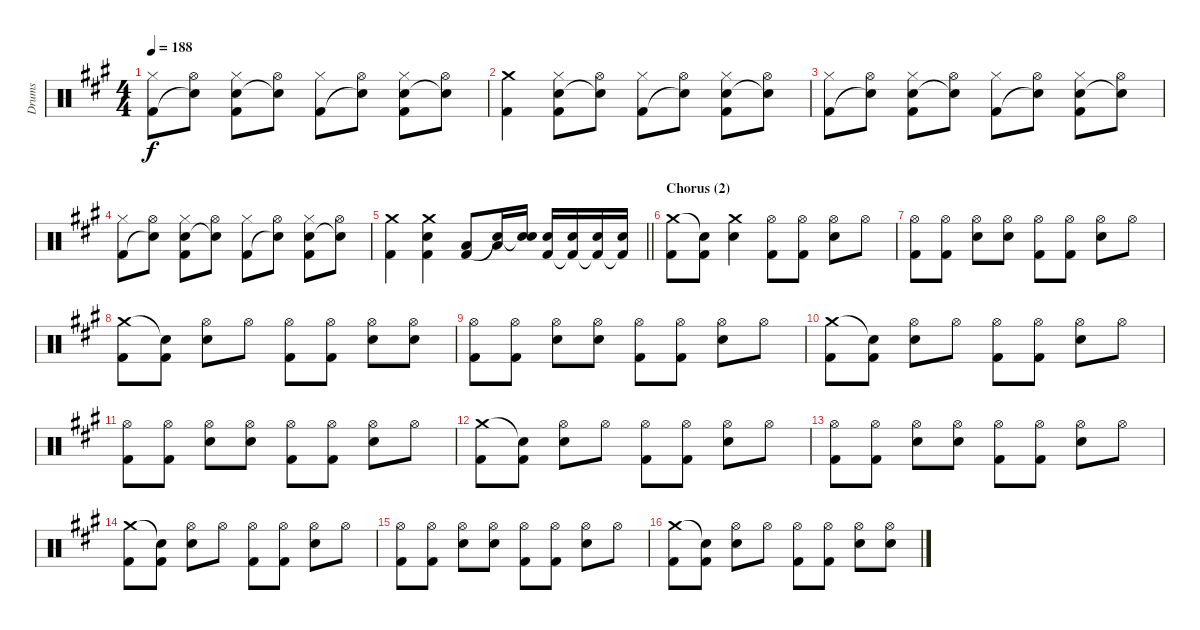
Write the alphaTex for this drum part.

\track ("Drums" "Drums") {instrument percussion}
\staff {score}
\articulation defaults
\ts (4 4)
\tempo 188
\clef neutral
\ks a
("Hi-Hat (closed)" "Kick (hit) 2").8{dy f} ("Hi-Hat (open)" "Snare (hit)"{t}).8 ("Hi-Hat (closed)" "Electric Snare (hit)" "Kick (hit) 2").8 ("Hi-Hat (open)" "Snare (hit)"{t}).8 ("Hi-Hat (closed)" "Kick (hit) 2").8 ("Hi-Hat (open)" "Snare (hit)"{t}).8 ("Hi-Hat (closed)" "Electric Snare (hit)" "Kick (hit) 2").8 ("Hi-Hat (open)" "Snare (hit)"{t}).8 |
("Crash medium (hit)" "Kick (hit) 2").4 ("Hi-Hat (closed)" "Electric Snare (hit)" "Kick (hit) 2").8 ("Hi-Hat (open)" "Snare (hit)"{t}).8 ("Hi-Hat (closed)" "Kick (hit) 2").8 ("Hi-Hat (open)" "Snare (hit)"{t}).8 ("Hi-Hat (closed)" "Electric Snare (hit)" "Kick (hit) 2").8 ("Hi-Hat (open)" "Snare (hit)"{t}).8 |
("Hi-Hat (closed)" "Kick (hit) 2").8 ("Hi-Hat (open)" "Snare (hit)"{t}).8 ("Hi-Hat (closed)" "Electric Snare (hit)" "Kick (hit) 2").8 ("Hi-Hat (open)" "Snare (hit)"{t}).8 ("Hi-Hat (closed)" "Kick (hit) 2").8 ("Hi-Hat (open)" "Snare (hit)"{t}).8 ("Hi-Hat (closed)" "Electric Snare (hit)" "Kick (hit) 2").8 ("Hi-Hat (open)" "Snare (hit)"{t}).8 |
("Hi-Hat (closed)" "Kick (hit) 2").8 ("Hi-Hat (open)" "Snare (hit)"{t}).8 ("Hi-Hat (closed)" "Electric Snare (hit)" "Kick (hit) 2").8 ("Hi-Hat (open)" "Snare (hit)"{t}).8 ("Hi-Hat (closed)" "Kick (hit) 2").8 ("Hi-Hat (open)" "Snare (hit)"{t}).8 ("Hi-Hat (closed)" "Electric Snare (hit)" "Kick (hit) 2").8 ("Hi-Hat (open)" "Snare (hit)"{t}).8 |
\barLineRight lightlight
("Crash medium (hit)" "Kick (hit) 2").4 ("Crash medium (hit)" "Electric Snare (hit)" "Kick (hit) 2").4 ("Low Tom (hit)" "Kick (hit) 2").8 ("Low Tom (hit)" "Snare (hit)"{t}).16 ("Electric Snare (hit)" "Snare (hit)"{t}).16 ("Electric Snare (hit)" "Kick (hit) 2").16 ("Electric Snare (hit)" "Kick (hit) 2"{t}).16 ("Electric Snare (hit)" "Kick (hit) 2"{t}).16 ("Electric Snare (hit)" "Kick (hit) 2"{t}).16 |
\section ("" "Chorus (2)")
("Crash medium (hit)" "Kick (hit) 2").8 ("Snare (hit)"{t} "Kick (hit) 2").8 ("Crash medium (hit)" "Electric Snare (hit)").4 ("Hi-Hat (open)" "Kick (hit) 2").8 ("Hi-Hat (open)" "Kick (hit) 2").8 ("Hi-Hat (open)" "Electric Snare (hit)").8 "Hi-Hat (open)".8 |
("Hi-Hat (open)" "Kick (hit) 2").8 ("Hi-Hat (open)" "Kick (hit) 2").8 ("Hi-Hat (open)" "Electric Snare (hit)").8 ("Hi-Hat (open)" "Electric Snare (hit)").8 ("Hi-Hat (open)" "Kick (hit) 2").8 ("Hi-Hat (open)" "Kick (hit) 2").8 ("Hi-Hat (open)" "Electric Snare (hit)").8 "Hi-Hat (open)".8 |
("Crash medium (hit)" "Kick (hit) 2").8 ("Snare (hit)"{t} "Kick (hit) 2").8 ("Hi-Hat (open)" "Electric Snare (hit)").8 "Hi-Hat (open)".8 ("Hi-Hat (open)" "Kick (hit) 2").8 ("Hi-Hat (open)" "Kick (hit) 2").8 ("Hi-Hat (open)" "Electric Snare (hit)").8 ("Hi-Hat (open)" "Electric Snare (hit)").8 |
("Hi-Hat (open)" "Kick (hit) 2").8 ("Hi-Hat (open)" "Kick (hit) 2").8 ("Hi-Hat (open)" "Electric Snare (hit)").8 ("Hi-Hat (open)" "Electric Snare (hit)").8 ("Hi-Hat (open)" "Kick (hit) 2").8 ("Hi-Hat (open)" "Kick (hit) 2").8 ("Hi-Hat (open)" "Electric Snare (hit)").8 "Hi-Hat (open)".8 |
("Crash medium (hit)" "Kick (hit) 2").8 ("Snare (hit)"{t} "Kick (hit) 2").8 ("Hi-Hat (open)" "Electric Snare (hit)").8 "Hi-Hat (open)".8 ("Hi-Hat (open)" "Kick (hit) 2").8 ("Hi-Hat (open)" "Kick (hit) 2").8 ("Hi-Hat (open)" "Electric Snare (hit)").8 "Hi-Hat (open)".8 |
("Hi-Hat (open)" "Kick (hit) 2").8 ("Hi-Hat (open)" "Kick (hit) 2").8 ("Hi-Hat (open)" "Electric Snare (hit)").8 ("Hi-Hat (open)" "Electric Snare (hit)").8 ("Hi-Hat (open)" "Kick (hit) 2").8 ("Hi-Hat (open)" "Kick (hit) 2").8 ("Hi-Hat (open)" "Electric Snare (hit)").8 "Hi-Hat (open)".8 |
("Crash medium (hit)" "Kick (hit) 2").8 ("Snare (hit)"{t} "Kick (hit) 2").8 ("Hi-Hat (open)" "Electric Snare (hit)").8 "Hi-Hat (open)".8 ("Hi-Hat (open)" "Kick (hit) 2").8 ("Hi-Hat (open)" "Kick (hit) 2").8 ("Hi-Hat (open)" "Electric Snare (hit)").8 "Hi-Hat (open)".8 |
("Hi-Hat (open)" "Kick (hit) 2").8 ("Hi-Hat (open)" "Kick (hit) 2").8 ("Hi-Hat (open)" "Electric Snare (hit)").8 ("Hi-Hat (open)" "Electric Snare (hit)").8 ("Hi-Hat (open)" "Kick (hit) 2").8 ("Hi-Hat (open)" "Kick (hit) 2").8 ("Hi-Hat (open)" "Electric Snare (hit)").8 "Hi-Hat (open)".8 |
("Crash medium (hit)" "Kick (hit) 2").8 ("Snare (hit)"{t} "Kick (hit) 2").8 ("Hi-Hat (open)" "Electric Snare (hit)").8 "Hi-Hat (open)".8 ("Hi-Hat (open)" "Kick (hit) 2").8 ("Hi-Hat (open)" "Kick (hit) 2").8 ("Hi-Hat (open)" "Electric Snare (hit)").8 "Hi-Hat (open)".8 |
("Hi-Hat (open)" "Kick (hit) 2").8 ("Hi-Hat (open)" "Kick (hit) 2").8 ("Hi-Hat (open)" "Electric Snare (hit)").8 ("Hi-Hat (open)" "Electric Snare (hit)").8 ("Hi-Hat (open)" "Kick (hit) 2").8 ("Hi-Hat (open)" "Kick (hit) 2").8 ("Hi-Hat (open)" "Electric Snare (hit)").8 "Hi-Hat (open)".8 |
("Crash medium (hit)" "Kick (hit) 2").8 ("Snare (hit)"{t} "Kick (hit) 2").8 ("Hi-Hat (open)" "Electric Snare (hit)").8 "Hi-Hat (open)".8 ("Hi-Hat (open)" "Kick (hit) 2").8 ("Hi-Hat (open)" "Kick (hit) 2").8 ("Hi-Hat (open)" "Electric Snare (hit)").8 ("Hi-Hat (open)" "Electric Snare (hit)").8
